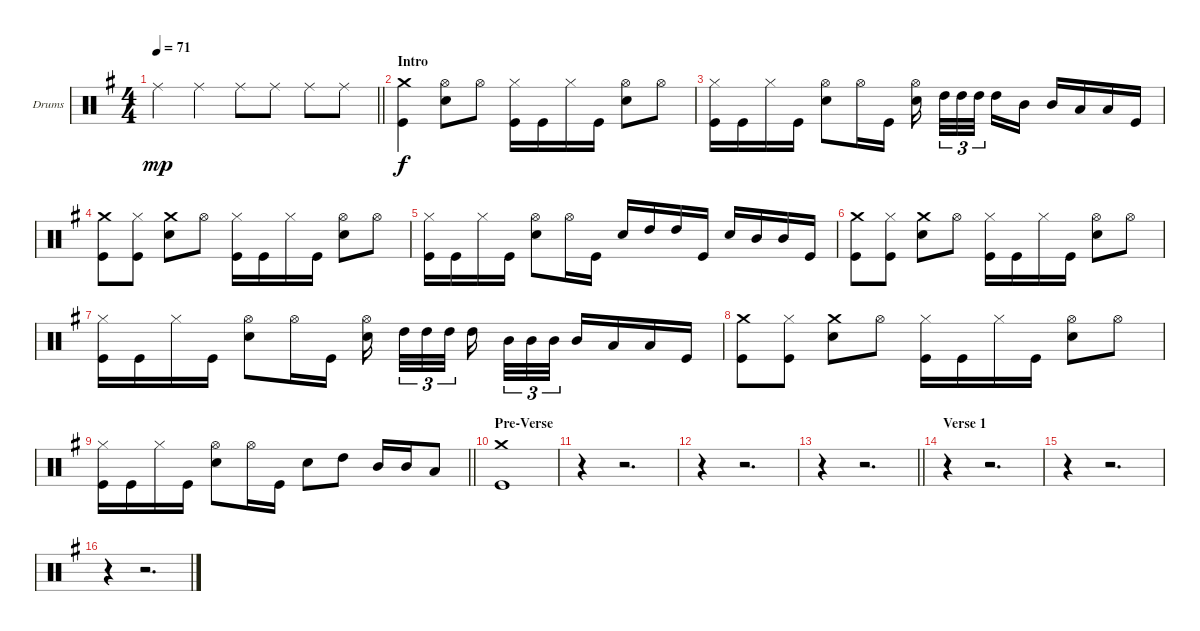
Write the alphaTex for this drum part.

\bracketExtendMode groupsimilarinstruments
\firstSystemTrackNameOrientation horizontal
\otherSystemsTrackNameOrientation horizontal
\track ("Барабаны" "Drums") {instrument percussion}
\staff {score}
\articulation defaults
\ts (4 4)
\beaming (8 2 2 2 2)
\tempo 71
\clef neutral
\barLineRight lightlight
\ks eminor "Ride (middle)".4{dy mp} "Ride (middle)".4 "Ride (middle)".8 "Ride (middle)".8 "Ride (middle)".8 "Ride (middle)".8
|
\section ("" "Intro")
("Kick (hit)" "Crash medium (hit)").4{dy f} ("Snare (hit) 2" "Hi-Hat (open)").8 "Hi-Hat (open)".8 ("Kick (hit)" "Hi-Hat (closed)").16 "Kick (hit)".16 "Hi-Hat (closed)".16 "Kick (hit)".16 ("Snare (hit) 2" "Hi-Hat (open)").8 "Hi-Hat (open)".8 |
("Kick (hit)" "Hi-Hat (closed)").16 "Kick (hit)".16 "Hi-Hat (closed)".16 "Kick (hit)".16 ("Snare (hit) 2" "Hi-Hat (open)").8 "Hi-Hat (open)".16 "Kick (hit)".16 ("Snare (hit) 2" "Hi-Hat (open)").16 "High Tom (hit)".32{tu (3 2)} "High Tom (hit)".32{tu (3 2)} "High Tom (hit)".32{tu (3 2)} "High Tom (hit)".16 "Mid Tom (hit)".16 "Mid Tom (hit)".16 "Low Tom (hit)".16 "Low Tom (hit)".16 "Kick (hit)".16 |
("Kick (hit)" "Crash medium (hit)").8 ("Hi-Hat (closed)" "Kick (hit)").8 ("Snare (hit) 2" "Crash medium (hit)").8 "Hi-Hat (open)".8 ("Kick (hit)" "Hi-Hat (closed)").16 "Kick (hit)".16 "Hi-Hat (closed)".16 "Kick (hit)".16 ("Snare (hit) 2" "Hi-Hat (open)").8 "Hi-Hat (open)".8 |
("Kick (hit)" "Hi-Hat (closed)").16 "Kick (hit)".16 "Hi-Hat (closed)".16 "Kick (hit)".16 ("Snare (hit) 2" "Hi-Hat (open)").8 "Hi-Hat (open)".16 "Kick (hit)".16 "Snare (hit) 2".16 "High Tom (hit)".16 "High Tom (hit)".16 "Kick (hit)".16 "Snare (hit) 2".16 "Mid Tom (hit)".16 "Mid Tom (hit)".16 "Kick (hit)".16 |
("Kick (hit)" "Crash medium (hit)").8 ("Hi-Hat (closed)" "Kick (hit)").8 ("Snare (hit) 2" "Crash medium (hit)").8 "Hi-Hat (open)".8 ("Kick (hit)" "Hi-Hat (closed)").16 "Kick (hit)".16 "Hi-Hat (closed)".16 "Kick (hit)".16 ("Snare (hit) 2" "Hi-Hat (open)").8 "Hi-Hat (open)".8 |
("Kick (hit)" "Hi-Hat (closed)").16 "Kick (hit)".16 "Hi-Hat (closed)".16 "Kick (hit)".16 ("Snare (hit) 2" "Hi-Hat (open)").8 "Hi-Hat (open)".16 "Kick (hit)".16 ("Snare (hit) 2" "Hi-Hat (open)").16 "High Tom (hit)".32{tu (3 2)} "High Tom (hit)".32{tu (3 2)} "High Tom (hit)".32{tu (3 2)} "High Tom (hit)".16 "Mid Tom (hit)".32{tu (3 2)} "Mid Tom (hit)".32{tu (3 2)} "Mid Tom (hit)".32{tu (3 2)} "Mid Tom (hit)".16 "Low Tom (hit)".16 "Low Tom (hit)".16 "Kick (hit)".16 |
("Kick (hit)" "Crash medium (hit)").8 ("Hi-Hat (closed)" "Kick (hit)").8 ("Snare (hit) 2" "Crash medium (hit)").8 "Hi-Hat (open)".8 ("Kick (hit)" "Hi-Hat (closed)").16 "Kick (hit)".16 "Hi-Hat (closed)".16 "Kick (hit)".16 ("Snare (hit) 2" "Hi-Hat (open)").8 "Hi-Hat (open)".8 |
\barLineRight lightlight
("Kick (hit)" "Hi-Hat (closed)").16 "Kick (hit)".16 "Hi-Hat (closed)".16 "Kick (hit)".16 ("Snare (hit) 2" "Hi-Hat (open)").8 "Hi-Hat (open)".16 "Kick (hit)".16 "Snare (hit) 2".8 "High Tom (hit)".8 "Mid Tom (hit)".16 "Mid Tom (hit)".16 "Low Tom (hit)".8 |
\section ("" "Pre-Verse")
("Kick (hit)" "Crash medium (hit)").1 |
r.4 r.2{d} |
r.4 r.2{d} |
\barLineRight lightlight
r.4 r.2{d} |
\section ("" "Verse 1")
r.4 r.2{d} |
r.4 r.2{d} |
r.4 r.2{d}
